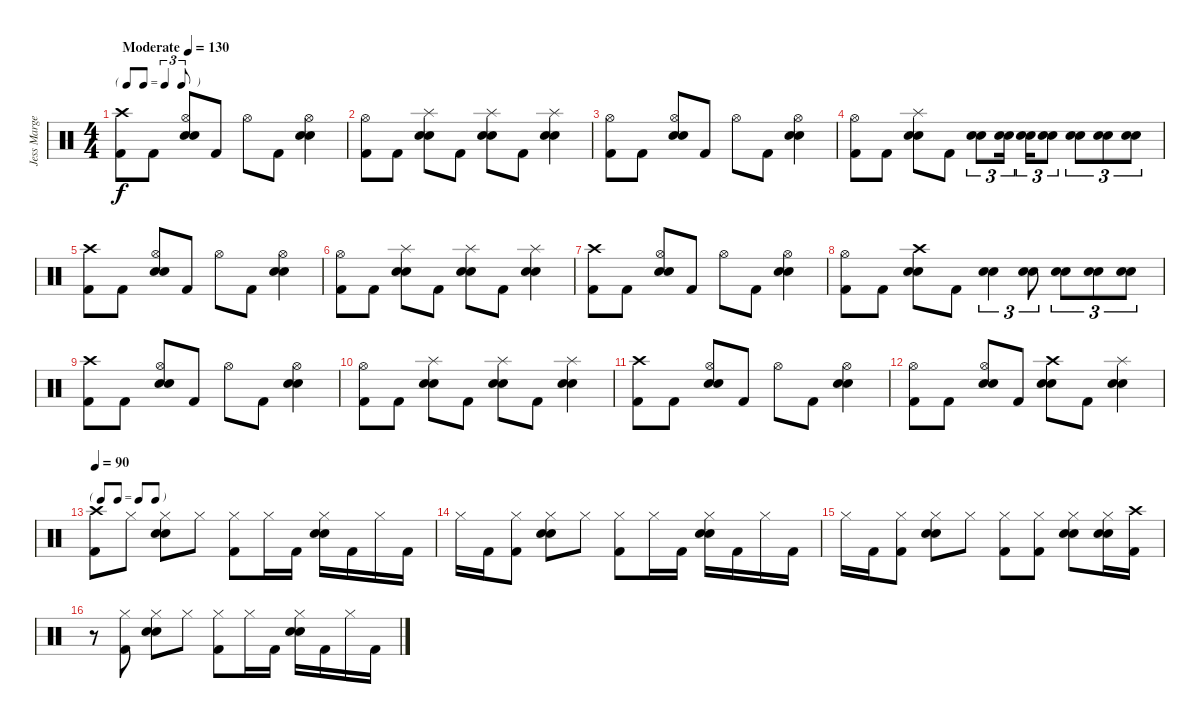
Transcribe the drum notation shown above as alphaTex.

\track ("Jess Margera" "Jess Marge") {instrument percussion}
\staff {score}
\articulation defaults
\ts (4 4)
\tf triplet8th
\tempo (130 "Moderate")
\clef neutral
\ks c
("Crash high (hit)" "Kick (hit) 2").8{dy f} "Kick (hit) 2".8 ("Snare (hit) 2" "Hi-Hat (open)" "Electric Snare (hit)").8 "Kick (hit) 2".8 "Hi-Hat (open)".8 "Kick (hit) 2".8 ("Hi-Hat (open)" "Snare (hit) 2" "Electric Snare (hit)").4 |
("Hi-Hat (open)" "Kick (hit) 2").8 "Kick (hit) 2".8 ("Splash (hit)" "Snare (hit) 2" "Electric Snare (hit)").8 "Kick (hit) 2".8 ("Splash (hit)" "Snare (hit) 2" "Electric Snare (hit)").8 "Kick (hit) 2".8 ("Splash (hit)" "Snare (hit) 2" "Electric Snare (hit)").4 |
("Hi-Hat (open)" "Kick (hit) 2").8 "Kick (hit) 2".8 ("Hi-Hat (open)" "Snare (hit) 2" "Electric Snare (hit)").8 "Kick (hit) 2".8 "Hi-Hat (open)".8 "Kick (hit) 2".8 ("Hi-Hat (open)" "Snare (hit) 2" "Electric Snare (hit)").4 |
("Hi-Hat (open)" "Kick (hit) 2").8 "Kick (hit) 2".8 ("Splash (hit)" "Snare (hit) 2" "Electric Snare (hit)").8 "Kick (hit) 2".8 ("Snare (hit) 2" "Electric Snare (hit)").8{tu (3 2)} ("Snare (hit) 2" "Electric Snare (hit)").16{tu (3 2) beam splitsecondary} ("Snare (hit) 2" "Electric Snare (hit)").16{tu (3 2)} ("Snare (hit) 2" "Electric Snare (hit)").8{tu (3 2)} ("Snare (hit) 2" "Electric Snare (hit)").8{tu (3 2)} ("Snare (hit) 2" "Electric Snare (hit)").8{tu (3 2)} ("Snare (hit) 2" "Electric Snare (hit)").8{tu (3 2)} |
("Crash high (hit)" "Kick (hit) 2").8 "Kick (hit) 2".8 ("Snare (hit) 2" "Hi-Hat (open)" "Electric Snare (hit)").8 "Kick (hit) 2".8 "Hi-Hat (open)".8 "Kick (hit) 2".8 ("Hi-Hat (open)" "Snare (hit) 2" "Electric Snare (hit)").4 |
("Hi-Hat (open)" "Kick (hit) 2").8 "Kick (hit) 2".8 ("Splash (hit)" "Snare (hit) 2" "Electric Snare (hit)").8 "Kick (hit) 2".8 ("Splash (hit)" "Snare (hit) 2" "Electric Snare (hit)").8 "Kick (hit) 2".8 ("Splash (hit)" "Snare (hit) 2" "Electric Snare (hit)").4 |
("Crash high (hit)" "Kick (hit) 2").8 "Kick (hit) 2".8 ("Snare (hit) 2" "Hi-Hat (open)" "Electric Snare (hit)").8 "Kick (hit) 2".8 "Hi-Hat (open)".8 "Kick (hit) 2".8 ("Hi-Hat (open)" "Snare (hit) 2" "Electric Snare (hit)").4 |
("Hi-Hat (open)" "Kick (hit) 2").8 "Kick (hit) 2".8 ("Crash high (hit)" "Snare (hit) 2" "Electric Snare (hit)").8 "Kick (hit) 2".8 ("Snare (hit) 2" "Electric Snare (hit)").4{tu (3 2)} ("Snare (hit) 2" "Electric Snare (hit)").8{tu (3 2)} ("Snare (hit) 2" "Electric Snare (hit)").8{tu (3 2)} ("Snare (hit) 2" "Electric Snare (hit)").8{tu (3 2)} ("Snare (hit) 2" "Electric Snare (hit)").8{tu (3 2)} |
("Crash high (hit)" "Kick (hit) 2").8 "Kick (hit) 2".8 ("Snare (hit) 2" "Hi-Hat (open)" "Electric Snare (hit)").8 "Kick (hit) 2".8 "Hi-Hat (open)".8 "Kick (hit) 2".8 ("Hi-Hat (open)" "Snare (hit) 2" "Electric Snare (hit)").4 |
("Hi-Hat (open)" "Kick (hit) 2").8 "Kick (hit) 2".8 ("Splash (hit)" "Snare (hit) 2" "Electric Snare (hit)").8 "Kick (hit) 2".8 ("Splash (hit)" "Snare (hit) 2" "Electric Snare (hit)").8 "Kick (hit) 2".8 ("Splash (hit)" "Snare (hit) 2" "Electric Snare (hit)").4 |
("Crash high (hit)" "Kick (hit) 2").8 "Kick (hit) 2".8 ("Snare (hit) 2" "Hi-Hat (open)" "Electric Snare (hit)").8 "Kick (hit) 2".8 "Hi-Hat (open)".8 "Kick (hit) 2".8 ("Hi-Hat (open)" "Snare (hit) 2" "Electric Snare (hit)").4 |
("Hi-Hat (open)" "Kick (hit) 2").8 "Kick (hit) 2".8 ("Hi-Hat (open)" "Snare (hit) 2" "Electric Snare (hit)").8 "Kick (hit) 2".8 ("Crash high (hit)" "Snare (hit) 2" "Electric Snare (hit)").8 "Kick (hit) 2".8 ("Splash (hit)" "Snare (hit) 2" "Electric Snare (hit)").4 |
\tf none
\tempo 90
("Crash high (hit)" "Kick (hit) 2").8 "Hi-Hat (closed)".8 ("Hi-Hat (closed)" "Snare (hit) 2" "Electric Snare (hit)").8 "Hi-Hat (closed)".8 ("Hi-Hat (closed)" "Kick (hit) 2").8 "Hi-Hat (closed)".16 "Kick (hit) 2".16 ("Hi-Hat (closed)" "Snare (hit) 2" "Electric Snare (hit)").16 "Kick (hit) 2".16 "Hi-Hat (closed)".16 "Kick (hit) 2".16 |
"Hi-Hat (closed)".16 "Kick (hit) 2".16 ("Hi-Hat (closed)" "Kick (hit) 2").8 ("Hi-Hat (closed)" "Snare (hit) 2" "Electric Snare (hit)").8 "Hi-Hat (closed)".8 ("Hi-Hat (closed)" "Kick (hit) 2").8 "Hi-Hat (closed)".16 "Kick (hit) 2".16 ("Hi-Hat (closed)" "Snare (hit) 2" "Electric Snare (hit)").16 "Kick (hit) 2".16 "Hi-Hat (closed)".16 "Kick (hit) 2".16 |
"Hi-Hat (closed)".16 "Kick (hit) 2".16 ("Hi-Hat (closed)" "Kick (hit) 2").8 ("Hi-Hat (closed)" "Snare (hit) 2" "Electric Snare (hit)").8 "Hi-Hat (closed)".8 ("Hi-Hat (closed)" "Kick (hit) 2").8 ("Hi-Hat (closed)" "Kick (hit) 2").8 ("Hi-Hat (closed)" "Snare (hit) 2" "Electric Snare (hit)").8 ("Hi-Hat (closed)" "Snare (hit) 2" "Electric Snare (hit)").16 ("Crash high (hit)" "Kick (hit) 2").16 |
r.8 ("Hi-Hat (closed)" "Kick (hit) 2").8 ("Hi-Hat (closed)" "Snare (hit) 2" "Electric Snare (hit)").8 "Hi-Hat (closed)".8 ("Hi-Hat (closed)" "Kick (hit) 2").8 "Hi-Hat (closed)".16 "Kick (hit) 2".16 ("Hi-Hat (closed)" "Snare (hit) 2" "Electric Snare (hit)").16 "Kick (hit) 2".16 "Hi-Hat (closed)".16 "Kick (hit) 2".16
